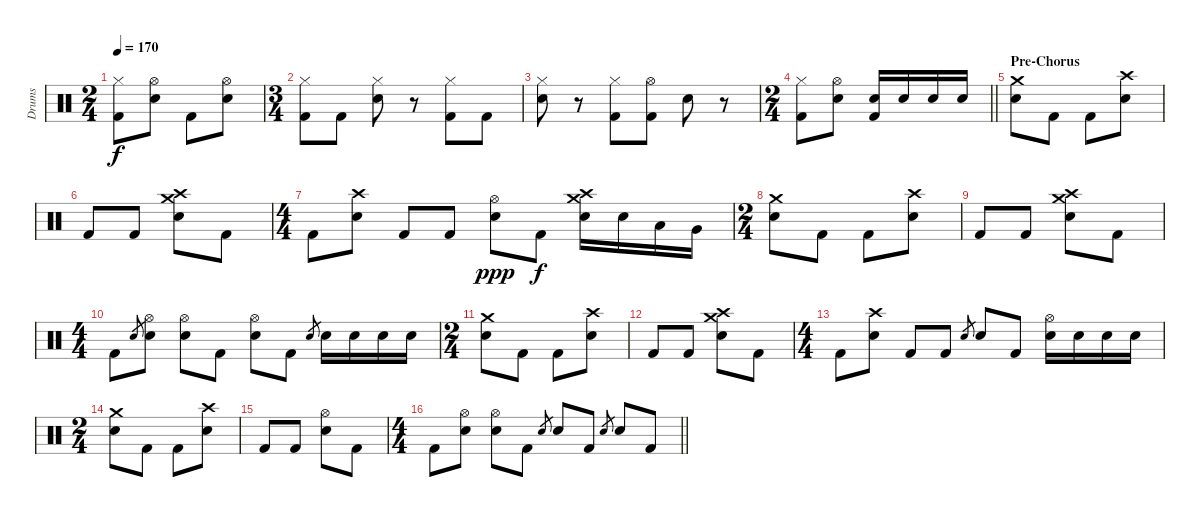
\track ("Drums" "Drums") {instrument percussion}
\staff {score}
\articulation defaults
\ts (2 4)
\tempo 170
\clef neutral
\ks c
("Hi-Hat (closed)" "Kick (hit) 2").8{dy f} ("Hi-Hat (open)" "Electric Snare (hit)").8 "Kick (hit) 2".8 ("Hi-Hat (open)" "Electric Snare (hit)").8 |
\ts (3 4)
("Hi-Hat (closed)" "Kick (hit) 2").8 "Kick (hit) 2".8 ("Hi-Hat (closed)" "Electric Snare (hit)").8 r.8 ("Hi-Hat (closed)" "Kick (hit) 2").8 "Kick (hit) 2".8 |
("Hi-Hat (closed)" "Electric Snare (hit)").8 r.8 ("Hi-Hat (closed)" "Kick (hit) 2").8 ("Hi-Hat (open)" "Kick (hit) 2").8 "Electric Snare (hit)".8 r.8 |
\ts (2 4)
\barLineRight lightlight
("Hi-Hat (closed)" "Kick (hit) 2").8 ("Hi-Hat (open)" "Electric Snare (hit)").8 ("Electric Snare (hit)" "Kick (hit) 2").16 "Electric Snare (hit)".16 "Electric Snare (hit)".16 "Electric Snare (hit)".16 |
\section ("" "Pre-Chorus")
("Crash medium (hit)" "Electric Snare (hit)").8 "Kick (hit) 2".8 "Kick (hit) 2".8 ("Crash high (hit)" "Electric Snare (hit)").8 |
"Kick (hit) 2".8 "Kick (hit) 2".8 ("Crash medium (hit)" "Crash high (hit)" "Electric Snare (hit)").8 "Kick (hit) 2".8 |
\ts (4 4)
"Kick (hit) 2".8 ("Crash high (hit)" "Electric Snare (hit)").8 "Kick (hit) 2".8 "Kick (hit) 2".8 ("Hi-Hat (open)" "Electric Snare (hit)").8{dy ppp} "Kick (hit) 2".8{dy f} ("Crash medium (hit)" "Crash high (hit)" "Electric Snare (hit)").16 "Electric Snare (hit)".16 "Low Tom (hit)".16 "Very Low Tom (hit)".16 |
\ts (2 4)
("Crash medium (hit)" "Electric Snare (hit)").8 "Kick (hit) 2".8 "Kick (hit) 2".8 ("Crash high (hit)" "Electric Snare (hit)").8 |
"Kick (hit) 2".8 "Kick (hit) 2".8 ("Crash medium (hit)" "Crash high (hit)" "Electric Snare (hit)").8 "Kick (hit) 2".8 |
\ts (4 4)
"Kick (hit) 2".8 "Electric Snare (hit)".8{gr} ("Hi-Hat (open)" "Electric Snare (hit)").8 ("Hi-Hat (open)" "Electric Snare (hit)").8 "Kick (hit) 2".8 ("Hi-Hat (open)" "Electric Snare (hit)").8 "Kick (hit) 2".8 "Electric Snare (hit)".8{gr} "Electric Snare (hit)".16 "Electric Snare (hit)".16 "Electric Snare (hit)".16 "Electric Snare (hit)".16 |
\ts (2 4)
("Crash medium (hit)" "Electric Snare (hit)").8 "Kick (hit) 2".8 "Kick (hit) 2".8 ("Crash high (hit)" "Electric Snare (hit)").8 |
"Kick (hit) 2".8 "Kick (hit) 2".8 ("Crash medium (hit)" "Crash high (hit)" "Electric Snare (hit)").8 "Kick (hit) 2".8 |
\ts (4 4)
"Kick (hit) 2".8 ("Crash high (hit)" "Electric Snare (hit)").8 "Kick (hit) 2".8 "Kick (hit) 2".8 "Electric Snare (hit)".8{gr} "Electric Snare (hit)".8 "Kick (hit) 2".8 ("Hi-Hat (open)" "Electric Snare (hit)").16 "Electric Snare (hit)".16 "Electric Snare (hit)".16 "Electric Snare (hit)".16 |
\ts (2 4)
("Crash medium (hit)" "Electric Snare (hit)").8 "Kick (hit) 2".8 "Kick (hit) 2".8 ("Crash high (hit)" "Electric Snare (hit)").8 |
"Kick (hit) 2".8 "Kick (hit) 2".8 ("Hi-Hat (open)" "Electric Snare (hit)").8 "Kick (hit) 2".8 |
\ts (4 4)
\barLineRight lightlight "Kick (hit) 2".8
("Hi-Hat (open)" "Electric Snare (hit)").8 ("Hi-Hat (open)" "Electric Snare (hit)").8 "Kick (hit) 2".8 "Electric Snare (hit)".8{gr} "Electric Snare (hit)".8 "Kick (hit) 2".8 "Electric Snare (hit)".8{gr} "Electric Snare (hit)".8 "Kick (hit) 2".8
